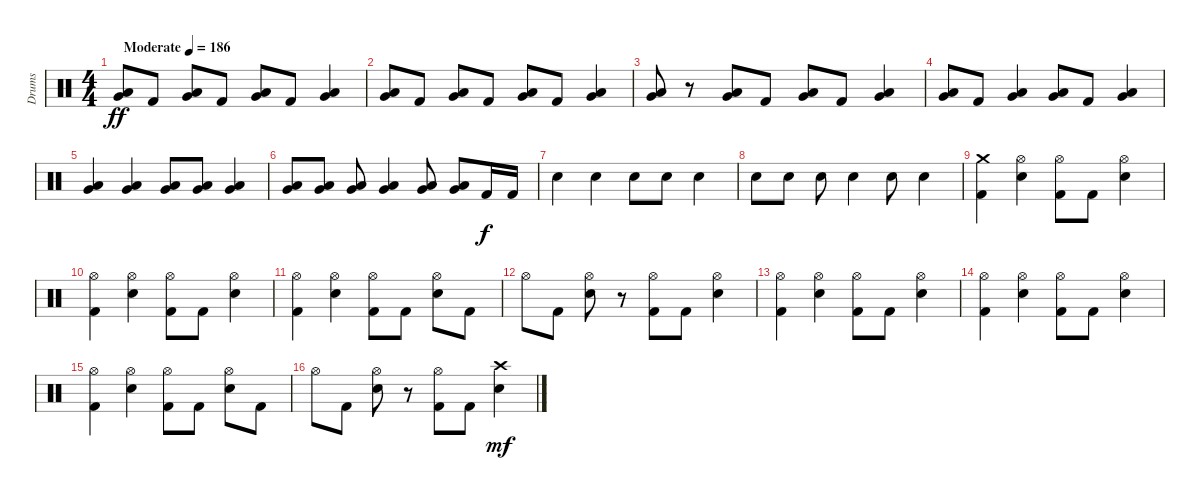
\track ("Drums" "Drums") {instrument percussion}
\staff
\articulation defaults
\ts (4 4)
\tempo (186 "Moderate")
\clef neutral
\ks c
("Low Floor Tom (hit)" "Very Low Tom (hit)").8{dy ff} "Kick (hit) 2".8 ("Low Floor Tom (hit)" "Very Low Tom (hit)").8 "Kick (hit) 2".8 ("Low Floor Tom (hit)" "Very Low Tom (hit)").8 "Kick (hit) 2".8 ("Low Floor Tom (hit)" "Very Low Tom (hit)").4 |
("Low Floor Tom (hit)" "Very Low Tom (hit)").8 "Kick (hit) 2".8 ("Low Floor Tom (hit)" "Very Low Tom (hit)").8 "Kick (hit) 2".8 ("Low Floor Tom (hit)" "Very Low Tom (hit)").8 "Kick (hit) 2".8 ("Low Floor Tom (hit)" "Very Low Tom (hit)").4 |
("Low Floor Tom (hit)" "Very Low Tom (hit)").8 r.8 ("Low Floor Tom (hit)" "Very Low Tom (hit)").8 "Kick (hit) 2".8 ("Low Floor Tom (hit)" "Very Low Tom (hit)").8 "Kick (hit) 2".8 ("Low Floor Tom (hit)" "Very Low Tom (hit)").4 |
("Low Floor Tom (hit)" "Very Low Tom (hit)").8 "Kick (hit) 2".8 ("Low Floor Tom (hit)" "Very Low Tom (hit)").4 ("Low Floor Tom (hit)" "Very Low Tom (hit)").8 "Kick (hit) 2".8 ("Low Floor Tom (hit)" "Very Low Tom (hit)").4 |
("Low Floor Tom (hit)" "Very Low Tom (hit)").4 ("Low Floor Tom (hit)" "Very Low Tom (hit)").4 ("Low Floor Tom (hit)" "Very Low Tom (hit)").8 ("Low Floor Tom (hit)" "Very Low Tom (hit)").8 ("Low Floor Tom (hit)" "Very Low Tom (hit)").4 |
("Low Floor Tom (hit)" "Very Low Tom (hit)").8 ("Low Floor Tom (hit)" "Very Low Tom (hit)").8 ("Low Floor Tom (hit)" "Very Low Tom (hit)").8 ("Low Floor Tom (hit)" "Very Low Tom (hit)").4 ("Low Floor Tom (hit)" "Very Low Tom (hit)").8 ("Low Floor Tom (hit)" "Very Low Tom (hit)").8 "Kick (hit) 2".16{dy f} "Kick (hit) 2".16 |
"Electric Snare (hit)".4 "Electric Snare (hit)".4 "Electric Snare (hit)".8 "Electric Snare (hit)".8 "Electric Snare (hit)".4 |
"Electric Snare (hit)".8 "Electric Snare (hit)".8 "Electric Snare (hit)".8 "Electric Snare (hit)".4 "Electric Snare (hit)".8 "Electric Snare (hit)".4 |
("Crash medium (hit)" "Kick (hit) 2").4 ("Hi-Hat (open)" "Electric Snare (hit)").4 ("Hi-Hat (open)" "Kick (hit) 2").8 "Kick (hit) 2".8 ("Hi-Hat (open)" "Electric Snare (hit)").4 |
("Hi-Hat (open)" "Kick (hit) 2").4 ("Hi-Hat (open)" "Electric Snare (hit)").4 ("Hi-Hat (open)" "Kick (hit) 2").8 "Kick (hit) 2".8 ("Hi-Hat (open)" "Electric Snare (hit)").4 |
("Hi-Hat (open)" "Kick (hit) 2").4 ("Hi-Hat (open)" "Electric Snare (hit)").4 ("Hi-Hat (open)" "Kick (hit) 2").8 "Kick (hit) 2".8 ("Hi-Hat (open)" "Electric Snare (hit)").8 "Kick (hit) 2".8 |
"Hi-Hat (open)".8 "Kick (hit) 2".8 ("Hi-Hat (open)" "Electric Snare (hit)").8 r.8 ("Hi-Hat (open)" "Kick (hit) 2").8 "Kick (hit) 2".8 ("Hi-Hat (open)" "Electric Snare (hit)").4 |
("Hi-Hat (open)" "Kick (hit) 2").4 ("Hi-Hat (open)" "Electric Snare (hit)").4 ("Hi-Hat (open)" "Kick (hit) 2").8 "Kick (hit) 2".8 ("Hi-Hat (open)" "Electric Snare (hit)").4 |
("Hi-Hat (open)" "Kick (hit) 2").4 ("Hi-Hat (open)" "Electric Snare (hit)").4 ("Hi-Hat (open)" "Kick (hit) 2").8 "Kick (hit) 2".8 ("Hi-Hat (open)" "Electric Snare (hit)").4 |
("Hi-Hat (open)" "Kick (hit) 2").4 ("Hi-Hat (open)" "Electric Snare (hit)").4 ("Hi-Hat (open)" "Kick (hit) 2").8 "Kick (hit) 2".8 ("Hi-Hat (open)" "Electric Snare (hit)").8 "Kick (hit) 2".8 |
"Hi-Hat (open)".8 "Kick (hit) 2".8 ("Hi-Hat (open)" "Electric Snare (hit)").8 r.8 ("Hi-Hat (open)" "Kick (hit) 2").8 "Kick (hit) 2".8 ("Crash high (hit)" "Electric Snare (hit)").4{dy mf}
